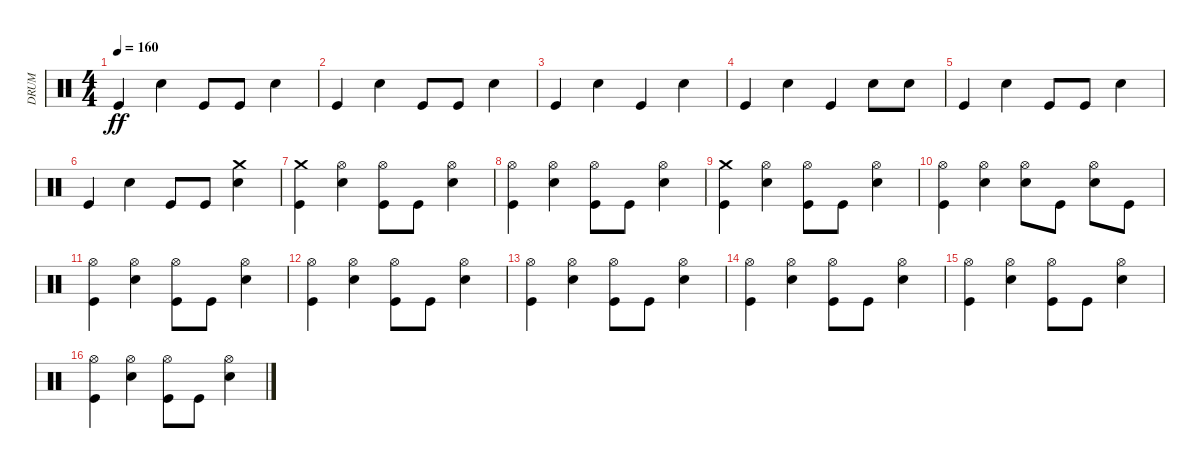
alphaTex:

\track ("DRUM" "DRUM") {instrument percussion}
\staff {score}
\articulation defaults
\ts (4 4)
\tempo 160
\clef neutral
\ks c "Kick (hit)".4{dy ff} "Snare (hit) 2".4 "Kick (hit)".8 "Kick (hit)".8 "Snare (hit) 2".4
|
"Kick (hit)".4 "Snare (hit) 2".4 "Kick (hit)".8 "Kick (hit)".8 "Snare (hit) 2".4 |
"Kick (hit)".4 "Snare (hit) 2".4 "Kick (hit)".4 "Snare (hit) 2".4 |
"Kick (hit)".4 "Snare (hit) 2".4 "Kick (hit)".4 "Snare (hit) 2".8 "Snare (hit) 2".8 |
"Kick (hit)".4 "Snare (hit) 2".4 "Kick (hit)".8 "Kick (hit)".8 "Snare (hit) 2".4 |
"Kick (hit)".4 "Snare (hit) 2".4 "Kick (hit)".8 "Kick (hit)".8 ("Crash medium (hit)" "Snare (hit) 2").4 |
("Crash medium (hit)" "Kick (hit)").4 ("Hi-Hat (open)" "Snare (hit) 2").4 ("Hi-Hat (open)" "Kick (hit)").8 "Kick (hit)".8 ("Hi-Hat (open)" "Snare (hit) 2").4 |
("Hi-Hat (open)" "Kick (hit)").4 ("Hi-Hat (open)" "Snare (hit) 2").4 ("Hi-Hat (open)" "Kick (hit)").8 "Kick (hit)".8 ("Hi-Hat (open)" "Snare (hit) 2").4 |
("Crash medium (hit)" "Kick (hit)").4 ("Hi-Hat (open)" "Snare (hit) 2").4 ("Hi-Hat (open)" "Kick (hit)").8 "Kick (hit)".8 ("Hi-Hat (open)" "Snare (hit) 2").4 |
("Hi-Hat (open)" "Kick (hit)").4 ("Hi-Hat (open)" "Snare (hit) 2").4 ("Hi-Hat (open)" "Snare (hit) 2").8 "Kick (hit)".8 ("Hi-Hat (open)" "Snare (hit) 2").8 "Kick (hit)".8 |
("Hi-Hat (open)" "Kick (hit)").4 ("Hi-Hat (open)" "Snare (hit) 2").4 ("Hi-Hat (open)" "Kick (hit)").8 "Kick (hit)".8 ("Hi-Hat (open)" "Snare (hit) 2").4 |
("Hi-Hat (open)" "Kick (hit)").4 ("Hi-Hat (open)" "Snare (hit) 2").4 ("Hi-Hat (open)" "Kick (hit)").8 "Kick (hit)".8 ("Hi-Hat (open)" "Snare (hit) 2").4 |
("Hi-Hat (open)" "Kick (hit)").4 ("Hi-Hat (open)" "Snare (hit) 2").4 ("Hi-Hat (open)" "Kick (hit)").8 "Kick (hit)".8 ("Hi-Hat (open)" "Snare (hit) 2").4 |
("Hi-Hat (open)" "Kick (hit)").4 ("Hi-Hat (open)" "Snare (hit) 2").4 ("Hi-Hat (open)" "Kick (hit)").8 "Kick (hit)".8 ("Hi-Hat (open)" "Snare (hit) 2").4 |
("Hi-Hat (open)" "Kick (hit)").4 ("Hi-Hat (open)" "Snare (hit) 2").4 ("Hi-Hat (open)" "Kick (hit)").8 "Kick (hit)".8 ("Hi-Hat (open)" "Snare (hit) 2").4 |
("Hi-Hat (open)" "Kick (hit)").4 ("Hi-Hat (open)" "Snare (hit) 2").4 ("Hi-Hat (open)" "Kick (hit)").8 "Kick (hit)".8 ("Hi-Hat (open)" "Snare (hit) 2").4
